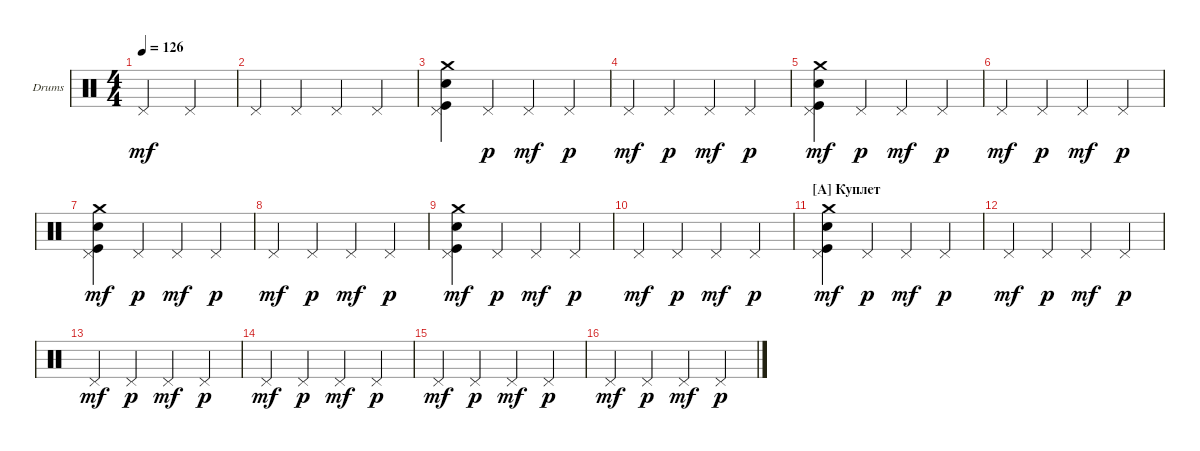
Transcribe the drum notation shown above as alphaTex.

\defaultSystemsLayout 4
\bracketExtendMode groupsimilarinstruments
\firstSystemTrackNameOrientation horizontal
\otherSystemsTrackNameOrientation horizontal
\track ("Е. Кулаков" "Drums") {instrument percussion}
\staff {score}
\articulation defaults
\ts (4 4)
\tempo 126
\clef neutral
\ks c "Pedal Hi-Hat (hit)".2{dy mf} "Pedal Hi-Hat (hit)".2
|
"Pedal Hi-Hat (hit)".4 "Pedal Hi-Hat (hit)".4 "Pedal Hi-Hat (hit)".4 "Pedal Hi-Hat (hit)".4 |
("Snare (hit) 2" "Kick (hit)" "Crash medium (hit)" "Pedal Hi-Hat (hit)").4 "Pedal Hi-Hat (hit)".4{dy p} "Pedal Hi-Hat (hit)".4{dy mf} "Pedal Hi-Hat (hit)".4{dy p} |
"Pedal Hi-Hat (hit)".4{dy mf} "Pedal Hi-Hat (hit)".4{dy p} "Pedal Hi-Hat (hit)".4{dy mf} "Pedal Hi-Hat (hit)".4{dy p} |
("Snare (hit) 2" "Kick (hit)" "Crash medium (hit)" "Pedal Hi-Hat (hit)").4{dy mf} "Pedal Hi-Hat (hit)".4{dy p} "Pedal Hi-Hat (hit)".4{dy mf} "Pedal Hi-Hat (hit)".4{dy p} |
"Pedal Hi-Hat (hit)".4{dy mf} "Pedal Hi-Hat (hit)".4{dy p} "Pedal Hi-Hat (hit)".4{dy mf} "Pedal Hi-Hat (hit)".4{dy p} |
("Snare (hit) 2" "Kick (hit)" "Crash medium (hit)" "Pedal Hi-Hat (hit)").4{dy mf} "Pedal Hi-Hat (hit)".4{dy p} "Pedal Hi-Hat (hit)".4{dy mf} "Pedal Hi-Hat (hit)".4{dy p} |
"Pedal Hi-Hat (hit)".4{dy mf} "Pedal Hi-Hat (hit)".4{dy p} "Pedal Hi-Hat (hit)".4{dy mf} "Pedal Hi-Hat (hit)".4{dy p} |
("Snare (hit) 2" "Kick (hit)" "Crash medium (hit)" "Pedal Hi-Hat (hit)").4{dy mf} "Pedal Hi-Hat (hit)".4{dy p} "Pedal Hi-Hat (hit)".4{dy mf} "Pedal Hi-Hat (hit)".4{dy p} |
"Pedal Hi-Hat (hit)".4{dy mf} "Pedal Hi-Hat (hit)".4{dy p} "Pedal Hi-Hat (hit)".4{dy mf} "Pedal Hi-Hat (hit)".4{dy p} |
\section ("A" "Куплет")
("Snare (hit) 2" "Kick (hit)" "Crash medium (hit)" "Pedal Hi-Hat (hit)").4{dy mf} "Pedal Hi-Hat (hit)".4{dy p} "Pedal Hi-Hat (hit)".4{dy mf} "Pedal Hi-Hat (hit)".4{dy p} |
"Pedal Hi-Hat (hit)".4{dy mf} "Pedal Hi-Hat (hit)".4{dy p} "Pedal Hi-Hat (hit)".4{dy mf} "Pedal Hi-Hat (hit)".4{dy p} |
"Pedal Hi-Hat (hit)".4{dy mf} "Pedal Hi-Hat (hit)".4{dy p} "Pedal Hi-Hat (hit)".4{dy mf} "Pedal Hi-Hat (hit)".4{dy p} |
"Pedal Hi-Hat (hit)".4{dy mf} "Pedal Hi-Hat (hit)".4{dy p} "Pedal Hi-Hat (hit)".4{dy mf} "Pedal Hi-Hat (hit)".4{dy p} |
"Pedal Hi-Hat (hit)".4{dy mf} "Pedal Hi-Hat (hit)".4{dy p} "Pedal Hi-Hat (hit)".4{dy mf} "Pedal Hi-Hat (hit)".4{dy p} |
"Pedal Hi-Hat (hit)".4{dy mf} "Pedal Hi-Hat (hit)".4{dy p} "Pedal Hi-Hat (hit)".4{dy mf} "Pedal Hi-Hat (hit)".4{dy p}
